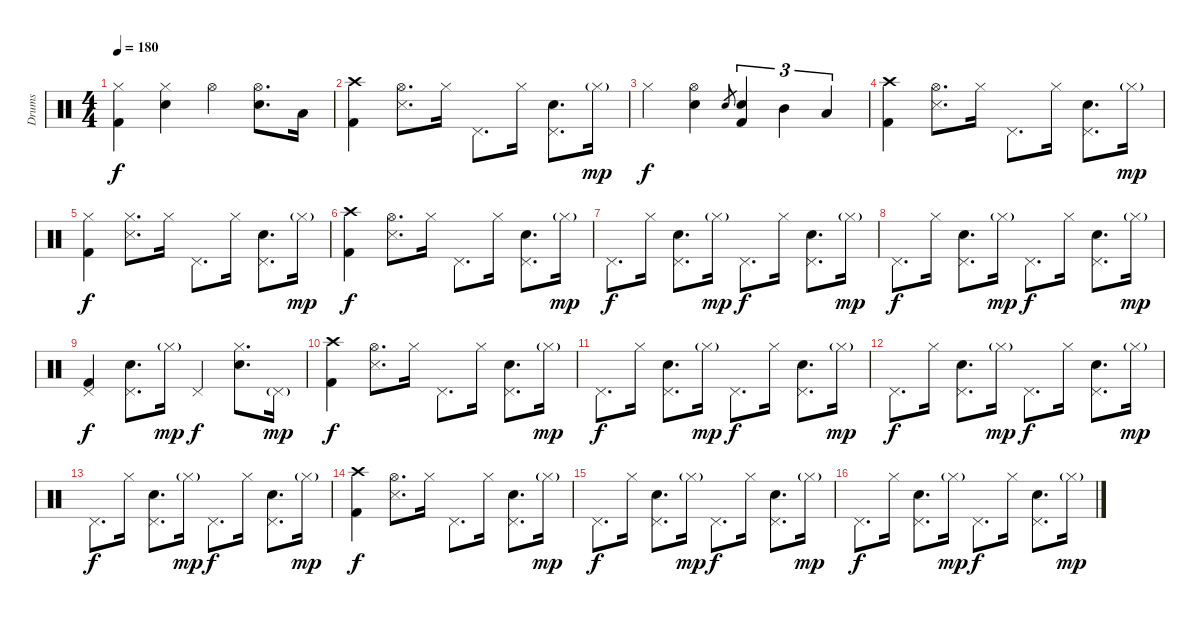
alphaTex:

\track ("Drums" "Drums") {instrument percussion}
\staff {score}
\articulation defaults
\ts (4 4)
\tempo 180
\clef neutral
\ks c
("Hi-Hat (closed)" "Kick (hit) 2").4{dy f} ("Hi-Hat (closed)" "Snare (hit) 2").4 "Hi-Hat (open)".4 ("Hi-Hat (open)" "Snare (hit) 2").8{d} "Low Tom (hit)".16 |
("Crash high (hit)" "Kick (hit) 2").4 ("Hi-Hat (open)" "Snare (side stick) 3").8{d} "Hi-Hat (closed)".16 "Pedal Hi-Hat (hit)".8{d} "Hi-Hat (closed)".16 ("Pedal Hi-Hat (hit)" "Snare (hit) 2").8{d} "Hi-Hat (closed)"{g}.16{dy mp} |
"Hi-Hat (closed)".4{dy f} ("Hi-Hat (open)" "Snare (hit) 2").4 "Snare (hit) 2".8{gr} ("Snare (hit) 2" "Kick (hit) 2").4{tu (3 2)} "Mid Tom (hit)".4{tu (3 2)} "Low Tom (hit)".4{tu (3 2)} |
("Crash high (hit)" "Kick (hit) 2").4 ("Hi-Hat (open)" "Snare (side stick) 3").8{d} "Hi-Hat (closed)".16 "Pedal Hi-Hat (hit)".8{d} "Hi-Hat (closed)".16 ("Pedal Hi-Hat (hit)" "Snare (hit) 2").8{d} "Hi-Hat (closed)"{g}.16{dy mp} |
("Hi-Hat (closed)" "Kick (hit) 2").4{dy f} ("Hi-Hat (closed)" "Snare (side stick) 3").8{d} "Hi-Hat (closed)".16 "Pedal Hi-Hat (hit)".8{d} "Hi-Hat (closed)".16 ("Pedal Hi-Hat (hit)" "Snare (hit) 2").8{d} "Hi-Hat (closed)"{g}.16{dy mp} |
("Crash high (hit)" "Kick (hit) 2").4{dy f} ("Hi-Hat (open)" "Snare (side stick) 3").8{d} "Hi-Hat (closed)".16 "Pedal Hi-Hat (hit)".8{d} "Hi-Hat (closed)".16 ("Pedal Hi-Hat (hit)" "Snare (hit) 2").8{d} "Hi-Hat (closed)"{g}.16{dy mp} |
"Pedal Hi-Hat (hit)".8{d dy f} "Hi-Hat (closed)".16 ("Pedal Hi-Hat (hit)" "Snare (hit) 2").8{d} "Hi-Hat (closed)"{g}.16{dy mp} "Pedal Hi-Hat (hit)".8{d dy f} "Hi-Hat (closed)".16 ("Pedal Hi-Hat (hit)" "Snare (hit) 2").8{d} "Hi-Hat (closed)"{g}.16{dy mp} |
"Pedal Hi-Hat (hit)".8{d dy f} "Hi-Hat (closed)".16 ("Pedal Hi-Hat (hit)" "Snare (hit) 2").8{d} "Hi-Hat (closed)"{g}.16{dy mp} "Pedal Hi-Hat (hit)".8{d dy f} "Hi-Hat (closed)".16 ("Pedal Hi-Hat (hit)" "Snare (hit) 2").8{d} "Hi-Hat (closed)"{g}.16{dy mp} |
("Pedal Hi-Hat (hit)" "Kick (hit) 2").4{dy f} ("Pedal Hi-Hat (hit)" "Snare (hit) 2").8{d} "Hi-Hat (closed)"{g}.16{dy mp} "Pedal Hi-Hat (hit)".4{dy f} ("Hi-Hat (closed)" "Snare (hit) 2").8{d} "Pedal Hi-Hat (hit)"{g}.16{dy mp} |
("Crash high (hit)" "Kick (hit) 2").4{dy f} ("Hi-Hat (open)" "Snare (side stick) 3").8{d} "Hi-Hat (closed)".16 "Pedal Hi-Hat (hit)".8{d} "Hi-Hat (closed)".16 ("Pedal Hi-Hat (hit)" "Snare (hit) 2").8{d} "Hi-Hat (closed)"{g}.16{dy mp} |
"Pedal Hi-Hat (hit)".8{d dy f} "Hi-Hat (closed)".16 ("Pedal Hi-Hat (hit)" "Snare (hit) 2").8{d} "Hi-Hat (closed)"{g}.16{dy mp} "Pedal Hi-Hat (hit)".8{d dy f} "Hi-Hat (closed)".16 ("Pedal Hi-Hat (hit)" "Snare (hit) 2").8{d} "Hi-Hat (closed)"{g}.16{dy mp} |
"Pedal Hi-Hat (hit)".8{d dy f} "Hi-Hat (closed)".16 ("Pedal Hi-Hat (hit)" "Snare (hit) 2").8{d} "Hi-Hat (closed)"{g}.16{dy mp} "Pedal Hi-Hat (hit)".8{d dy f} "Hi-Hat (closed)".16 ("Pedal Hi-Hat (hit)" "Snare (hit) 2").8{d} "Hi-Hat (closed)"{g}.16{dy mp} |
"Pedal Hi-Hat (hit)".8{d dy f} "Hi-Hat (closed)".16 ("Pedal Hi-Hat (hit)" "Snare (hit) 2").8{d} "Hi-Hat (closed)"{g}.16{dy mp} "Pedal Hi-Hat (hit)".8{d dy f} "Hi-Hat (closed)".16 ("Pedal Hi-Hat (hit)" "Snare (hit) 2").8{d} "Hi-Hat (closed)"{g}.16{dy mp} |
("Crash high (hit)" "Kick (hit) 2").4{dy f} ("Hi-Hat (open)" "Snare (side stick) 3").8{d} "Hi-Hat (closed)".16 "Pedal Hi-Hat (hit)".8{d} "Hi-Hat (closed)".16 ("Pedal Hi-Hat (hit)" "Snare (hit) 2").8{d} "Hi-Hat (closed)"{g}.16{dy mp} |
"Pedal Hi-Hat (hit)".8{d dy f} "Hi-Hat (closed)".16 ("Pedal Hi-Hat (hit)" "Snare (hit) 2").8{d} "Hi-Hat (closed)"{g}.16{dy mp} "Pedal Hi-Hat (hit)".8{d dy f} "Hi-Hat (closed)".16 ("Pedal Hi-Hat (hit)" "Snare (hit) 2").8{d} "Hi-Hat (closed)"{g}.16{dy mp} |
"Pedal Hi-Hat (hit)".8{d dy f} "Hi-Hat (closed)".16 ("Pedal Hi-Hat (hit)" "Snare (hit) 2").8{d} "Hi-Hat (closed)"{g}.16{dy mp} "Pedal Hi-Hat (hit)".8{d dy f} "Hi-Hat (closed)".16 ("Pedal Hi-Hat (hit)" "Snare (hit) 2").8{d} "Hi-Hat (closed)"{g}.16{dy mp}
